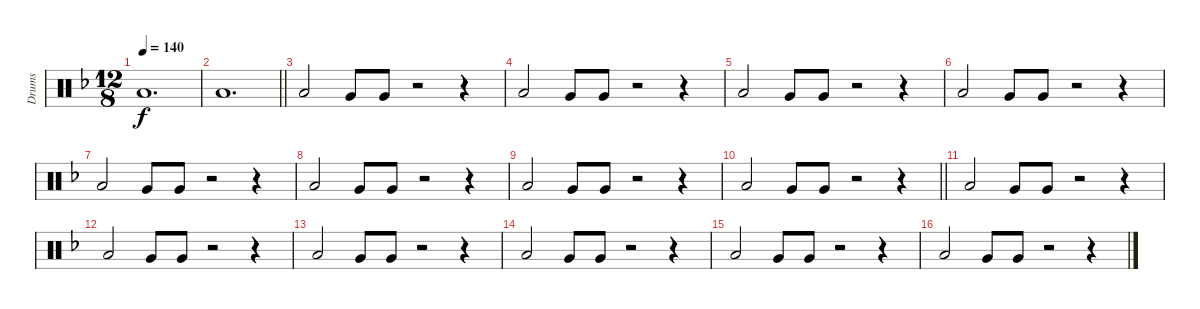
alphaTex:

\track ("Drums" "Drums") {instrument percussion}
\staff {score}
\articulation defaults
\ts (12 8)
\tempo 140
\clef neutral
\ks f "Low Floor Tom (hit)".1{d dy f}
|
\barLineRight lightlight "Low Floor Tom (hit)".1{d}
|
"Low Floor Tom (hit)".2 "Very Low Tom (hit)".8 "Very Low Tom (hit)".8 r.2 r.4 |
"Low Floor Tom (hit)".2 "Very Low Tom (hit)".8 "Very Low Tom (hit)".8 r.2 r.4 |
"Low Floor Tom (hit)".2 "Very Low Tom (hit)".8 "Very Low Tom (hit)".8 r.2 r.4 |
"Low Floor Tom (hit)".2 "Very Low Tom (hit)".8 "Very Low Tom (hit)".8 r.2 r.4 |
"Low Floor Tom (hit)".2 "Very Low Tom (hit)".8 "Very Low Tom (hit)".8 r.2 r.4 |
"Low Floor Tom (hit)".2 "Very Low Tom (hit)".8 "Very Low Tom (hit)".8 r.2 r.4 |
"Low Floor Tom (hit)".2 "Very Low Tom (hit)".8 "Very Low Tom (hit)".8 r.2 r.4 |
\barLineRight lightlight "Low Floor Tom (hit)".2 "Very Low Tom (hit)".8 "Very Low Tom (hit)".8
r.2 r.4 |
"Low Floor Tom (hit)".2 "Very Low Tom (hit)".8 "Very Low Tom (hit)".8 r.2 r.4 |
"Low Floor Tom (hit)".2 "Very Low Tom (hit)".8 "Very Low Tom (hit)".8 r.2 r.4 |
"Low Floor Tom (hit)".2 "Very Low Tom (hit)".8 "Very Low Tom (hit)".8 r.2 r.4 |
"Low Floor Tom (hit)".2 "Very Low Tom (hit)".8 "Very Low Tom (hit)".8 r.2 r.4 |
"Low Floor Tom (hit)".2 "Very Low Tom (hit)".8 "Very Low Tom (hit)".8 r.2 r.4 |
"Low Floor Tom (hit)".2 "Very Low Tom (hit)".8 "Very Low Tom (hit)".8 r.2 r.4
